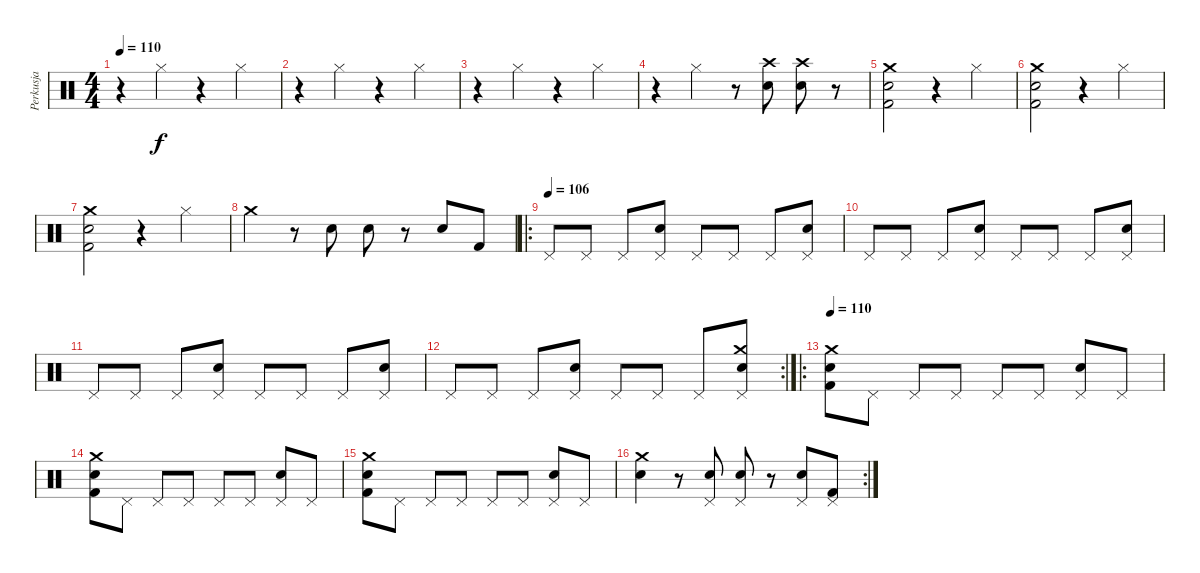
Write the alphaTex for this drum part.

\track ("Perkusja" "Perkusja") {instrument percussion}
\staff {score}
\articulation defaults
\ts (4 4)
\tempo 110
\clef neutral
\ks c
r.4{dy f} "Hi-Hat (closed)".4 r.4 "Hi-Hat (closed)".4 |
r.4 "Hi-Hat (closed)".4 r.4 "Hi-Hat (closed)".4 |
r.4 "Hi-Hat (closed)".4 r.4 "Hi-Hat (closed)".4 |
r.4 "Hi-Hat (closed)".4 r.8 ("Snare (hit) 2" "Crash high (hit)").8 ("Snare (hit) 2" "Crash high (hit)").8 r.8 |
("Kick (hit) 2" "Snare (hit) 2" "Crash medium (hit)").2 r.4 "Hi-Hat (closed)".4 |
("Kick (hit) 2" "Snare (hit) 2" "Crash medium (hit)").2 r.4 "Hi-Hat (closed)".4 |
("Kick (hit) 2" "Snare (hit) 2" "Crash medium (hit)").2 r.4 "Hi-Hat (closed)".4 |
"Crash medium (hit)".4 r.8 "Electric Snare (hit)".8 "Snare (hit) 2".8 r.8 "Snare (hit) 2".8 "Kick (hit) 2".8 |
\ro
\tempo (106)
"Pedal Hi-Hat (hit)".8 "Pedal Hi-Hat (hit)".8 "Pedal Hi-Hat (hit)".8 ("Pedal Hi-Hat (hit)" "Snare (hit) 2").8 "Pedal Hi-Hat (hit)".8 "Pedal Hi-Hat (hit)".8 "Pedal Hi-Hat (hit)".8 ("Pedal Hi-Hat (hit)" "Snare (hit) 2").8 |
"Pedal Hi-Hat (hit)".8 "Pedal Hi-Hat (hit)".8 "Pedal Hi-Hat (hit)".8 ("Pedal Hi-Hat (hit)" "Snare (hit) 2").8 "Pedal Hi-Hat (hit)".8 "Pedal Hi-Hat (hit)".8 "Pedal Hi-Hat (hit)".8 ("Pedal Hi-Hat (hit)" "Snare (hit) 2").8 |
"Pedal Hi-Hat (hit)".8 "Pedal Hi-Hat (hit)".8 "Pedal Hi-Hat (hit)".8 ("Pedal Hi-Hat (hit)" "Snare (hit) 2").8 "Pedal Hi-Hat (hit)".8 "Pedal Hi-Hat (hit)".8 "Pedal Hi-Hat (hit)".8 ("Pedal Hi-Hat (hit)" "Snare (hit) 2").8 |
\rc 2 "Pedal Hi-Hat (hit)".8 "Pedal Hi-Hat (hit)".8 "Pedal Hi-Hat (hit)".8
("Pedal Hi-Hat (hit)" "Snare (hit) 2").8 "Pedal Hi-Hat (hit)".8 "Pedal Hi-Hat (hit)".8 "Pedal Hi-Hat (hit)".8 ("Pedal Hi-Hat (hit)" "Snare (hit) 2" "Crash medium (hit)").8 |
\ro
\tempo 110
("Kick (hit) 2" "Snare (hit) 2" "Crash medium (hit)").8 "Pedal Hi-Hat (hit)".8 "Pedal Hi-Hat (hit)".8 "Pedal Hi-Hat (hit)".8 "Pedal Hi-Hat (hit)".8 "Pedal Hi-Hat (hit)".8 ("Pedal Hi-Hat (hit)" "Snare (hit) 2").8 "Pedal Hi-Hat (hit)".8 |
("Kick (hit) 2" "Snare (hit) 2" "Crash medium (hit)").8 "Pedal Hi-Hat (hit)".8 "Pedal Hi-Hat (hit)".8 "Pedal Hi-Hat (hit)".8 "Pedal Hi-Hat (hit)".8 "Pedal Hi-Hat (hit)".8 ("Pedal Hi-Hat (hit)" "Snare (hit) 2").8 "Pedal Hi-Hat (hit)".8 |
("Kick (hit) 2" "Snare (hit) 2" "Crash medium (hit)").8 "Pedal Hi-Hat (hit)".8 "Pedal Hi-Hat (hit)".8 "Pedal Hi-Hat (hit)".8 "Pedal Hi-Hat (hit)".8 "Pedal Hi-Hat (hit)".8 ("Pedal Hi-Hat (hit)" "Snare (hit) 2").8 "Pedal Hi-Hat (hit)".8 |
\rc 2
("Electric Snare (hit)" "Crash medium (hit)").4 r.8 ("Pedal Hi-Hat (hit)" "Electric Snare (hit)").8 ("Pedal Hi-Hat (hit)" "Snare (hit) 2").8 r.8 ("Pedal Hi-Hat (hit)" "Snare (hit) 2").8 ("Pedal Hi-Hat (hit)" "Kick (hit) 2").8
